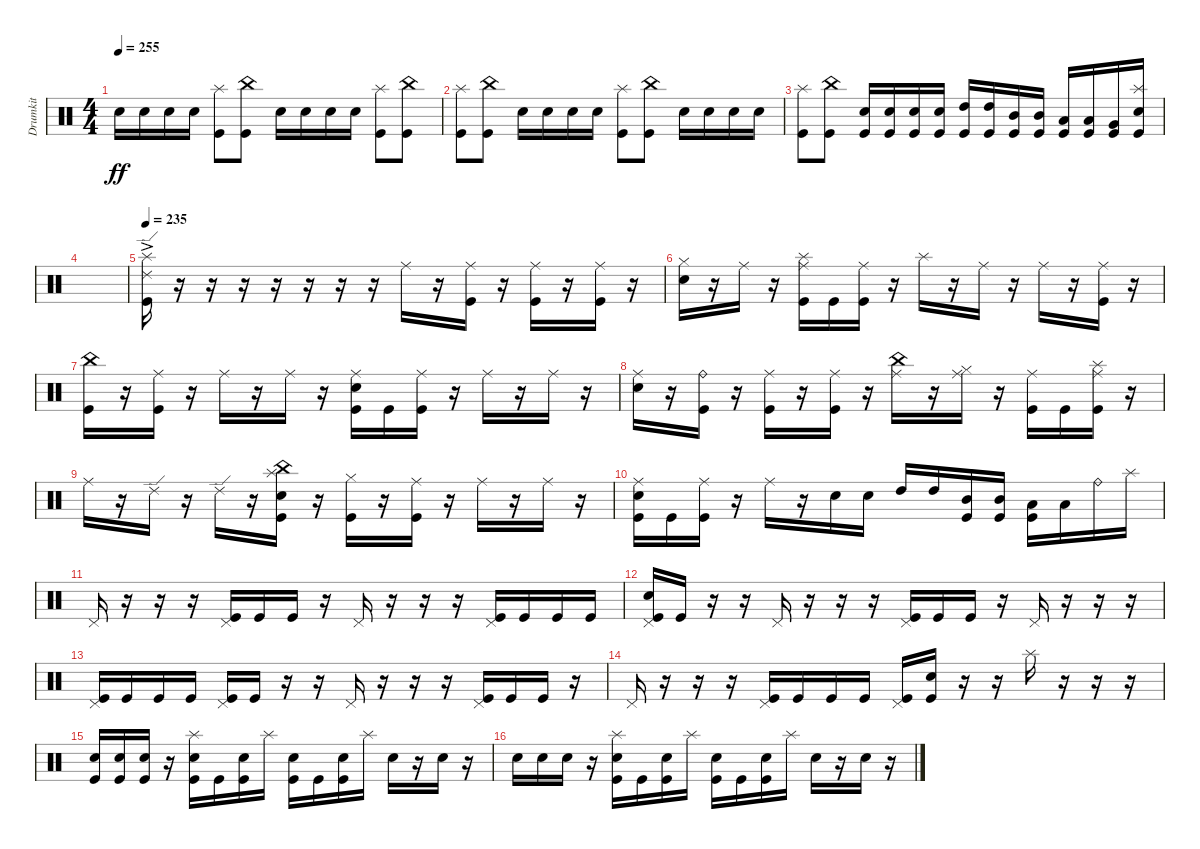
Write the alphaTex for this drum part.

\track ("Drumkit" "Drumkit") {instrument percussion}
\staff {score}
\articulation defaults
\ts (4 4)
\tempo 255
\clef neutral
\ks c "Snare (hit) 2".16{dy ff} "Snare (hit) 2".16 "Snare (hit) 2".16 "Snare (hit) 2".16
("Splash (hit)" "Kick (hit)").8 ("China (hit)" "Kick (hit)").8 "Snare (hit) 2".16 "Snare (hit) 2".16 "Snare (hit) 2".16 "Snare (hit) 2".16 ("Splash (hit)" "Kick (hit)").8 ("China (hit)" "Kick (hit)").8 |
("Splash (hit)" "Kick (hit)").8 ("China (hit)" "Kick (hit)").8 "Snare (hit) 2".16 "Snare (hit) 2".16 "Snare (hit) 2".16 "Snare (hit) 2".16 ("Splash (hit)" "Kick (hit)").8 ("China (hit)" "Kick (hit)").8 "Snare (hit) 2".16 "Snare (hit) 2".16 "Snare (hit) 2".16 "Snare (hit) 2".16 |
("Splash (hit)" "Kick (hit)").8 ("China (hit)" "Kick (hit)").8 ("Snare (hit) 2" "Kick (hit)").16 ("Snare (hit) 2" "Kick (hit)").16 ("Snare (hit) 2" "Kick (hit)").16 ("Snare (hit) 2" "Kick (hit)").16 ("High Tom (hit)" "Kick (hit)").16 ("High Tom (hit)" "Kick (hit)").16 ("Mid Tom (hit)" "Kick (hit)").16 ("Mid Tom (hit)" "Kick (hit)").16 ("Low Tom (hit)" "Kick (hit)").16 ("Low Tom (hit)" "Kick (hit)").16 ("Very Low Tom (hit)" "Kick (hit)").16 ("Kick (hit)" "Snare (hit) 2" "Splash (hit)").16 |
|
\tempo 235
("Splash (hit)"{ac} "Ride (edge) 2"{ac} "Kick (hit)").16 r.16 r.16 r.16 r.16 r.16 r.16 r.16 "Ride (middle)".16 r.16 ("Ride (middle)" "Kick (hit)").16 r.16 ("Ride (middle)" "Kick (hit)").16 r.16 ("Ride (middle)" "Kick (hit)").16 r.16 |
("Hi-Hat (closed)" "Snare (hit) 2").16 r.16 "Ride (middle)".16 r.16 ("Ride (middle)" "Kick (hit)" "Splash (hit)").16 "Kick (hit)".16 ("Ride (middle)" "Kick (hit)").16 r.16 "Splash (hit)".16 r.16 "Ride (middle)".16 r.16 "Ride (middle)".16 r.16 ("Ride (middle)" "Kick (hit)").16 r.16 |
("Kick (hit)" "China (hit)").16 r.16 ("Ride (middle)" "Kick (hit)").16 r.16 "Ride (middle)".16 r.16 "Ride (middle)".16 r.16 ("Ride (middle)" "Kick (hit)" "Snare (hit) 2").16 "Kick (hit)".16 ("Ride (middle)" "Kick (hit)").16 r.16 "Ride (middle)".16 r.16 "Ride (middle)".16 r.16 |
("Ride (middle)" "Snare (hit) 2").16 r.16 ("Ride (bell)" "Kick (hit)").16 r.16 ("Ride (middle)" "Kick (hit)").16 r.16 ("Ride (middle)" "Kick (hit)").16 r.16 ("Ride (middle)" "China (hit)").16 r.16 ("Ride (middle)" "Hi-Hat (closed)").16 r.16 ("Ride (middle)" "Kick (hit)").16 "Kick (hit)".16 ("Ride (middle)" "Kick (hit)" "Splash (hit)").16 r.16 |
"Ride (middle)".16 r.16 "Ride (edge) 2".16 r.16 "Ride (edge) 2".16 r.16 ("Kick (hit)" "Snare (hit) 2" "Splash (hit)" "China (hit)").16 r.16 ("Kick (hit)" "Hi-Hat (closed)").16 r.16 ("Ride (middle)" "Kick (hit)").16 r.16 "Ride (middle)".16 r.16 "Ride (middle)".16 r.16 |
("Kick (hit)" "Snare (hit) 2" "Ride (middle)").16 "Kick (hit)".16 ("Kick (hit)" "Ride (middle)").16 r.16 "Ride (middle)".16 r.16 "Snare (hit) 2".16 "Snare (hit) 2".16 "High Tom (hit)".16 "High Tom (hit)".16 ("Kick (hit)" "Mid Tom (hit)").16 ("Mid Tom (hit)" "Kick (hit)").16 ("Kick (hit)" "Low Tom (hit)").16 "Low Tom (hit)".16 "Ride (bell)".16 "Splash (hit)".16 |
"Pedal Hi-Hat (hit)".16 r.16 r.16 r.16 ("Pedal Hi-Hat (hit)" "Kick (hit)").16 "Kick (hit)".16 "Kick (hit)".16 r.16 "Pedal Hi-Hat (hit)".16 r.16 r.16 r.16 ("Pedal Hi-Hat (hit)" "Kick (hit)").16 "Kick (hit)".16 "Kick (hit)".16 "Kick (hit)".16 |
("Pedal Hi-Hat (hit)" "Kick (hit)" "Snare (hit) 2").16 "Kick (hit)".16 r.16 r.16 "Pedal Hi-Hat (hit)".16 r.16 r.16 r.16 ("Pedal Hi-Hat (hit)" "Kick (hit)").16 "Kick (hit)".16 "Kick (hit)".16 r.16 "Pedal Hi-Hat (hit)".16 r.16 r.16 r.16 |
("Pedal Hi-Hat (hit)" "Kick (hit)").16 "Kick (hit)".16 "Kick (hit)".16 "Kick (hit)".16 ("Pedal Hi-Hat (hit)" "Kick (hit)").16 "Kick (hit)".16 r.16 r.16 "Pedal Hi-Hat (hit)".16 r.16 r.16 r.16 ("Pedal Hi-Hat (hit)" "Kick (hit)").16 "Kick (hit)".16 "Kick (hit)".16 r.16 |
"Pedal Hi-Hat (hit)".16 r.16 r.16 r.16 ("Pedal Hi-Hat (hit)" "Kick (hit)").16 "Kick (hit)".16 "Kick (hit)".16 "Kick (hit)".16 ("Pedal Hi-Hat (hit)" "Kick (hit)").16 ("Kick (hit)" "Snare (hit) 2").16 r.16 r.16 "Splash (hit)".16 r.16 r.16 r.16 |
("Snare (hit) 2" "Kick (hit)").16 ("Snare (hit) 2" "Kick (hit)").16 ("Snare (hit) 2" "Kick (hit)").16 r.16 ("Snare (hit) 2" "Splash (hit)" "Kick (hit)").16 "Kick (hit)".16 ("Snare (hit) 2" "Kick (hit)").16 "Splash (hit)".16 ("Snare (hit) 2" "Kick (hit)").16 "Kick (hit)".16 ("Snare (hit) 2" "Kick (hit)").16 "Splash (hit)".16 "Snare (hit) 2".16 r.16 "Snare (hit) 2".16 r.16 |
"Snare (hit) 2".16 "Snare (hit) 2".16 "Snare (hit) 2".16 r.16 ("Snare (hit) 2" "Splash (hit)" "Kick (hit)").16 "Kick (hit)".16 ("Snare (hit) 2" "Kick (hit)").16 "Splash (hit)".16 ("Snare (hit) 2" "Kick (hit)").16 "Kick (hit)".16 ("Snare (hit) 2" "Kick (hit)").16 "Splash (hit)".16 "Snare (hit) 2".16 r.16 "Snare (hit) 2".16 r.16
